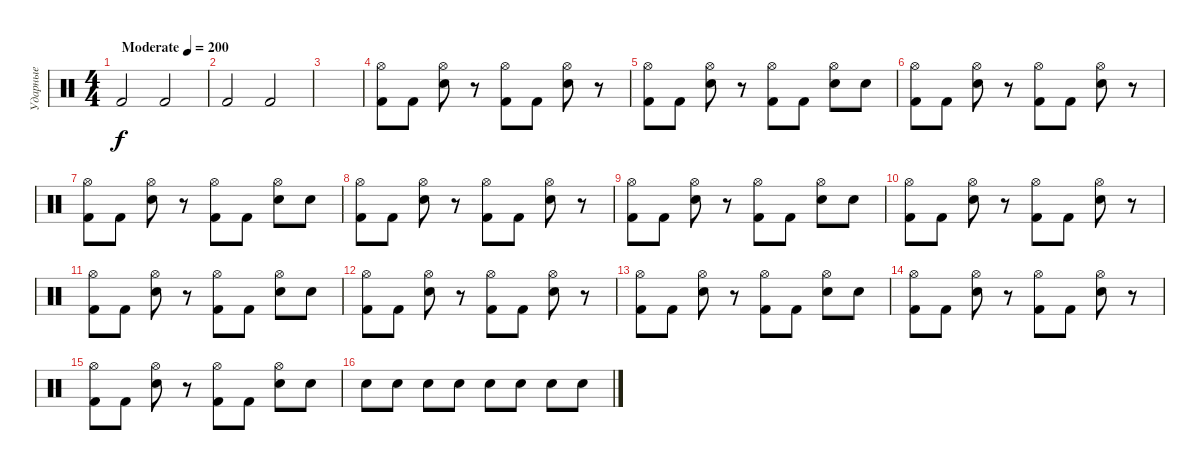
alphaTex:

\track ("Ударные" "Ударные") {instrument percussion}
\staff {score}
\articulation defaults
\ts (4 4)
\tempo (200 "Moderate")
\clef neutral
\ks c "Kick (hit) 2".2{dy f} "Kick (hit) 2".2
|
"Kick (hit) 2".2 "Kick (hit) 2".2 |
|
("Hi-Hat (open)" "Kick (hit) 2").8 "Kick (hit) 2".8 ("Hi-Hat (open)" "Snare (hit) 2").8 r.8 ("Hi-Hat (open)" "Kick (hit) 2").8 "Kick (hit) 2".8 ("Hi-Hat (open)" "Snare (hit) 2").8 r.8 |
("Hi-Hat (open)" "Kick (hit) 2").8 "Kick (hit) 2".8 ("Hi-Hat (open)" "Snare (hit) 2").8 r.8 ("Hi-Hat (open)" "Kick (hit) 2").8 "Kick (hit) 2".8 ("Hi-Hat (open)" "Snare (hit) 2").8 "Snare (hit) 2".8 |
("Hi-Hat (open)" "Kick (hit) 2").8 "Kick (hit) 2".8 ("Hi-Hat (open)" "Snare (hit) 2").8 r.8 ("Hi-Hat (open)" "Kick (hit) 2").8 "Kick (hit) 2".8 ("Hi-Hat (open)" "Snare (hit) 2").8 r.8 |
("Hi-Hat (open)" "Kick (hit) 2").8 "Kick (hit) 2".8 ("Hi-Hat (open)" "Snare (hit) 2").8 r.8 ("Hi-Hat (open)" "Kick (hit) 2").8 "Kick (hit) 2".8 ("Hi-Hat (open)" "Snare (hit) 2").8 "Snare (hit) 2".8 |
("Hi-Hat (open)" "Kick (hit) 2").8 "Kick (hit) 2".8 ("Hi-Hat (open)" "Snare (hit) 2").8 r.8 ("Hi-Hat (open)" "Kick (hit) 2").8 "Kick (hit) 2".8 ("Hi-Hat (open)" "Snare (hit) 2").8 r.8 |
("Hi-Hat (open)" "Kick (hit) 2").8 "Kick (hit) 2".8 ("Hi-Hat (open)" "Snare (hit) 2").8 r.8 ("Hi-Hat (open)" "Kick (hit) 2").8 "Kick (hit) 2".8 ("Hi-Hat (open)" "Snare (hit) 2").8 "Snare (hit) 2".8 |
("Hi-Hat (open)" "Kick (hit) 2").8 "Kick (hit) 2".8 ("Hi-Hat (open)" "Snare (hit) 2").8 r.8 ("Hi-Hat (open)" "Kick (hit) 2").8 "Kick (hit) 2".8 ("Hi-Hat (open)" "Snare (hit) 2").8 r.8 |
("Hi-Hat (open)" "Kick (hit) 2").8 "Kick (hit) 2".8 ("Hi-Hat (open)" "Snare (hit) 2").8 r.8 ("Hi-Hat (open)" "Kick (hit) 2").8 "Kick (hit) 2".8 ("Hi-Hat (open)" "Snare (hit) 2").8 "Snare (hit) 2".8 |
("Hi-Hat (open)" "Kick (hit) 2").8 "Kick (hit) 2".8 ("Hi-Hat (open)" "Snare (hit) 2").8 r.8 ("Hi-Hat (open)" "Kick (hit) 2").8 "Kick (hit) 2".8 ("Hi-Hat (open)" "Snare (hit) 2").8 r.8 |
("Hi-Hat (open)" "Kick (hit) 2").8 "Kick (hit) 2".8 ("Hi-Hat (open)" "Snare (hit) 2").8 r.8 ("Hi-Hat (open)" "Kick (hit) 2").8 "Kick (hit) 2".8 ("Hi-Hat (open)" "Snare (hit) 2").8 "Snare (hit) 2".8 |
("Hi-Hat (open)" "Kick (hit) 2").8 "Kick (hit) 2".8 ("Hi-Hat (open)" "Snare (hit) 2").8 r.8 ("Hi-Hat (open)" "Kick (hit) 2").8 "Kick (hit) 2".8 ("Hi-Hat (open)" "Snare (hit) 2").8 r.8 |
("Hi-Hat (open)" "Kick (hit) 2").8 "Kick (hit) 2".8 ("Hi-Hat (open)" "Snare (hit) 2").8 r.8 ("Hi-Hat (open)" "Kick (hit) 2").8 "Kick (hit) 2".8 ("Hi-Hat (open)" "Snare (hit) 2").8 "Snare (hit) 2".8 |
"Snare (hit) 2".8 "Snare (hit) 2".8 "Snare (hit) 2".8 "Snare (hit) 2".8 "Snare (hit) 2".8 "Snare (hit) 2".8 "Snare (hit) 2".8 "Snare (hit) 2".8
